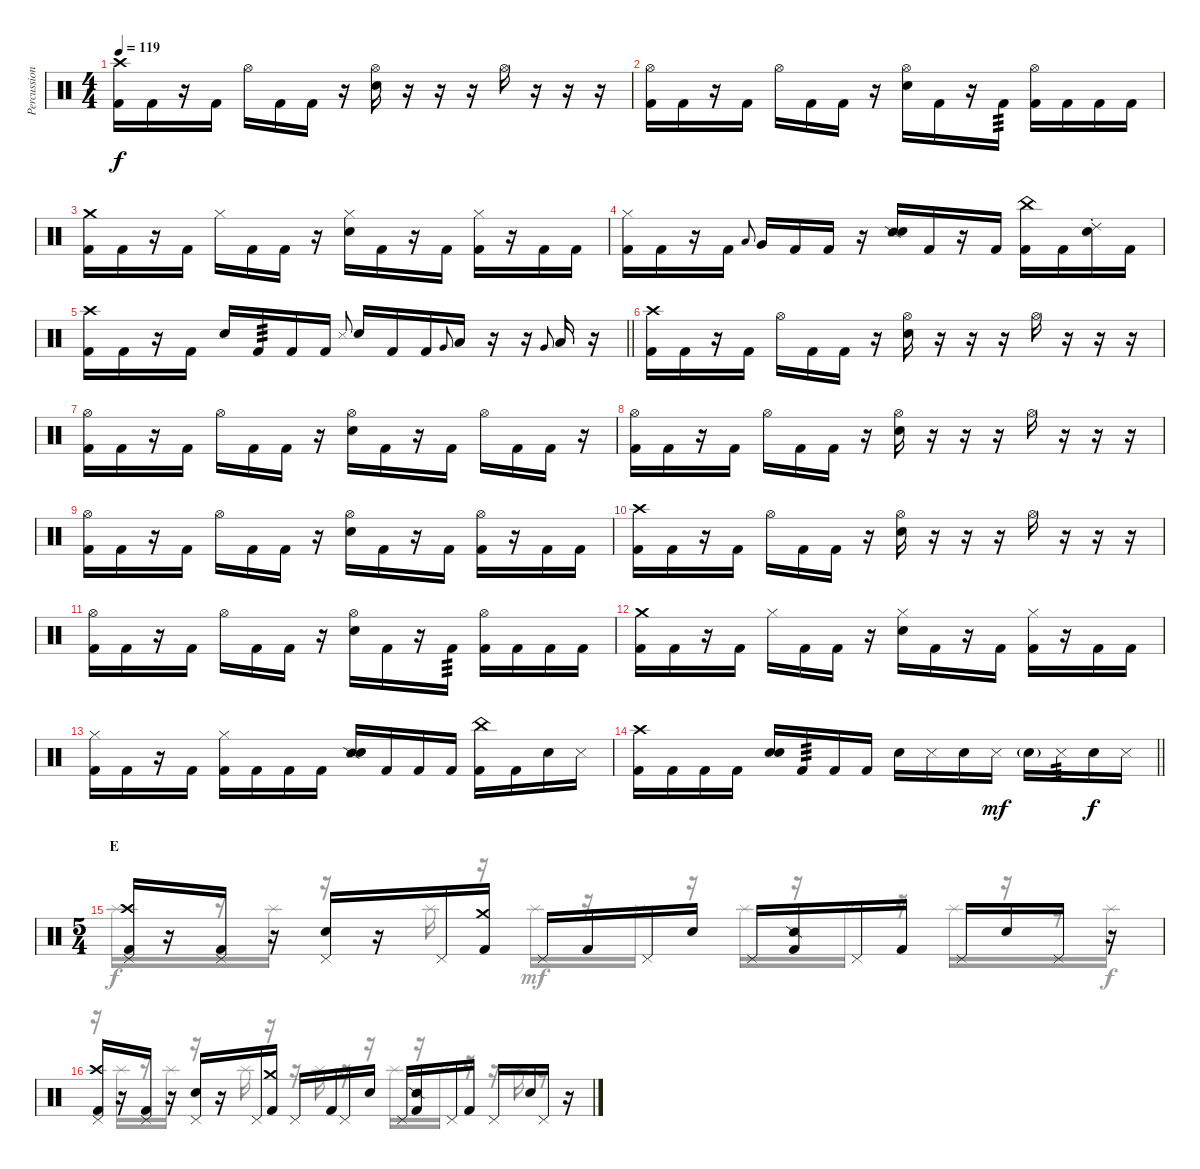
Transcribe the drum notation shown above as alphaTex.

\track ("Percussion" "Percussion") {instrument percussion}
\staff {score}
\articulation defaults
\voice
\ts (4 4)
\tempo 119
\clef neutral
\ks c
("Crash high (hit)" "Kick (hit) 2").16{dy f} "Kick (hit) 2".16 r.16 "Kick (hit) 2".16 "Hi-Hat (open)".16 "Kick (hit) 2".16 "Kick (hit) 2".16 r.16 ("Hi-Hat (open)" "Snare (hit) 2").16 r.16 r.16 r.16 "Hi-Hat (open)".16 r.16 r.16 r.16 |
("Hi-Hat (open)" "Kick (hit) 2").16 "Kick (hit) 2".16 r.16 "Kick (hit) 2".16 "Hi-Hat (open)".16 "Kick (hit) 2".16 "Kick (hit) 2".16 r.16 ("Hi-Hat (open)" "Snare (hit) 2").16 "Kick (hit) 2".16 r.16 "Kick (hit) 2".16{tp 3} ("Hi-Hat (open)" "Kick (hit) 2").16 "Kick (hit) 2".16 "Kick (hit) 2".16 "Kick (hit) 2".16 |
("Crash medium (hit)" "Kick (hit) 2").16 "Kick (hit) 2".16 r.16 "Kick (hit) 2".16 "Hi-Hat (closed)".16 "Kick (hit) 2".16 "Kick (hit) 2".16 r.16 ("Hi-Hat (closed)" "Snare (hit) 2").16 "Kick (hit) 2".16 r.16 "Kick (hit) 2".16 ("Hi-Hat (closed)" "Kick (hit) 2").16 r.16 "Kick (hit) 2".16 "Kick (hit) 2".16 |
("Hi-Hat (closed)" "Kick (hit) 2").16 "Kick (hit) 2".16 r.16 "Kick (hit) 2".16 "Low Tom (hit)".8{gr onbeat} "Very Low Tom (hit)".16 "Kick (hit) 2".16 "Kick (hit) 2".16 r.16 ("Snare (side stick) 2" "Snare (hit) 2").16 "Kick (hit) 2".16 r.16 "Kick (hit) 2".16 ("China (hit)" "Kick (hit) 2").16 "Kick (hit) 2".16 ("Ride (choke) 2" "Snare (hit) 2").16 "Kick (hit) 2".16 |
\barLineRight lightlight
("Crash high (hit)" "Kick (hit) 2").16 "Kick (hit) 2".16 r.16 "Kick (hit) 2".16 "Snare (hit)".16 "Kick (hit) 2".16{tp 3} "Kick (hit) 2".16 "Kick (hit) 2".16 "Metronome (hit)".8{gr onbeat} "Snare (hit) 2".16 "Kick (hit) 2".16 "Kick (hit) 2".16 "Very Low Tom (hit)".8{gr onbeat} "Low Floor Tom (hit)".16 r.16 r.16 "Very Low Tom (hit)".8{gr onbeat} "Low Floor Tom (hit)".16 r.16 |
("Crash high (hit)" "Kick (hit) 2").16 "Kick (hit) 2".16 r.16 "Kick (hit) 2".16 "Hi-Hat (open)".16 "Kick (hit) 2".16 "Kick (hit) 2".16 r.16 ("Hi-Hat (open)" "Snare (hit) 2").16 r.16 r.16 r.16 "Hi-Hat (open)".16 r.16 r.16 r.16 |
("Hi-Hat (open)" "Kick (hit) 2").16 "Kick (hit) 2".16 r.16 "Kick (hit) 2".16 "Hi-Hat (open)".16 "Kick (hit) 2".16 "Kick (hit) 2".16 r.16 ("Hi-Hat (open)" "Snare (hit) 2").16 "Kick (hit) 2".16 r.16 "Kick (hit) 2".16 "Hi-Hat (open)".16 "Kick (hit) 2".16 "Kick (hit) 2".16 r.16 |
("Hi-Hat (open)" "Kick (hit) 2").16 "Kick (hit) 2".16 r.16 "Kick (hit) 2".16 "Hi-Hat (open)".16 "Kick (hit) 2".16 "Kick (hit) 2".16 r.16 ("Hi-Hat (open)" "Snare (hit) 2").16 r.16 r.16 r.16 "Hi-Hat (open)".16 r.16 r.16 r.16 |
("Hi-Hat (open)" "Kick (hit) 2").16 "Kick (hit) 2".16 r.16 "Kick (hit) 2".16 "Hi-Hat (open)".16 "Kick (hit) 2".16 "Kick (hit) 2".16 r.16 ("Hi-Hat (open)" "Snare (hit) 2").16 "Kick (hit) 2".16 r.16 "Kick (hit) 2".16 ("Hi-Hat (open)" "Kick (hit) 2").16 r.16 "Kick (hit) 2".16 "Kick (hit) 2".16 |
("Crash high (hit)" "Kick (hit) 2").16 "Kick (hit) 2".16 r.16 "Kick (hit) 2".16 "Hi-Hat (open)".16 "Kick (hit) 2".16 "Kick (hit) 2".16 r.16 ("Hi-Hat (open)" "Snare (hit) 2").16 r.16 r.16 r.16 "Hi-Hat (open)".16 r.16 r.16 r.16 |
("Hi-Hat (open)" "Kick (hit) 2").16 "Kick (hit) 2".16 r.16 "Kick (hit) 2".16 "Hi-Hat (open)".16 "Kick (hit) 2".16 "Kick (hit) 2".16 r.16 ("Hi-Hat (open)" "Snare (hit) 2").16 "Kick (hit) 2".16 r.16 "Kick (hit) 2".16{tp 3} ("Hi-Hat (open)" "Kick (hit) 2").16 "Kick (hit) 2".16 "Kick (hit) 2".16 "Kick (hit) 2".16 |
("Crash medium (hit)" "Kick (hit) 2").16 "Kick (hit) 2".16 r.16 "Kick (hit) 2".16 "Hi-Hat (closed)".16 "Kick (hit) 2".16 "Kick (hit) 2".16 r.16 ("Hi-Hat (closed)" "Snare (hit) 2").16 "Kick (hit) 2".16 r.16 "Kick (hit) 2".16 ("Hi-Hat (closed)" "Kick (hit) 2").16 r.16 "Kick (hit) 2".16 "Kick (hit) 2".16 |
("Hi-Hat (closed)" "Kick (hit) 2").16 "Kick (hit) 2".16 r.16 "Kick (hit) 2".16 ("Hi-Hat (closed)" "Kick (hit) 2").16 "Kick (hit) 2".16 "Kick (hit) 2".16 "Kick (hit) 2".16 ("Snare (side stick) 2" "Snare (hit) 2").16 "Kick (hit) 2".16 "Kick (hit) 2".16 "Kick (hit) 2".16 ("China (hit)" "Kick (hit) 2").16 "Kick (hit) 2".16 "Snare (hit) 2".16 "Metronome (hit)".16 |
\barLineRight lightlight
("Crash high (hit)" "Kick (hit) 2").16 "Kick (hit) 2".16 "Kick (hit) 2".16 "Kick (hit) 2".16 ("Snare (hit)" "Snare (hit) 2").16 "Kick (hit) 2".16{tp 3} "Kick (hit) 2".16 "Kick (hit) 2".16 "Snare (hit) 2".16 "Metronome (hit)".16 "Snare (hit) 2".16 "Metronome (hit)".16{dy mf} "Snare (hit) 2"{g}.16 "Metronome (hit)".16{tp 3} "Snare (hit) 2".16{dy f} "Metronome (hit)".16 |
\ts (5 4)
\section ("" "E")
("Crash high (hit)" "Pedal Hi-Hat (hit)" "Kick (hit) 2").16 r.16 ("Pedal Hi-Hat (hit)" "Kick (hit) 2").16 r.16 ("Pedal Hi-Hat (hit)" "Snare (hit) 2").16 r.16 "Pedal Hi-Hat (hit)".16 ("Crash medium (hit)" "Kick (hit) 2").16 "Pedal Hi-Hat (hit)".16 "Kick (hit) 2".16 "Pedal Hi-Hat (hit)".16 "Snare (hit) 2".16 "Pedal Hi-Hat (hit)".16 ("Snare (side stick) 2" "Kick (hit) 2").16 "Pedal Hi-Hat (hit)".16 "Kick (hit) 2".16 "Pedal Hi-Hat (hit)".16 "Snare (hit) 2".16 "Pedal Hi-Hat (hit)".16 r.16 |
("Crash high (hit)" "Pedal Hi-Hat (hit)" "Kick (hit) 2").16 r.16 ("Pedal Hi-Hat (hit)" "Kick (hit) 2").16 r.16 ("Pedal Hi-Hat (hit)" "Snare (hit) 2").16 r.16 "Pedal Hi-Hat (hit)".16 ("Crash medium (hit)" "Kick (hit) 2").16 "Pedal Hi-Hat (hit)".16 "Kick (hit) 2".16 "Pedal Hi-Hat (hit)".16 "Snare (hit) 2".16 "Pedal Hi-Hat (hit)".16 ("Snare (side stick) 2" "Kick (hit) 2").16 "Pedal Hi-Hat (hit)".16 "Kick (hit) 2".16 "Pedal Hi-Hat (hit)".16 "Snare (hit) 2".16 "Pedal Hi-Hat (hit)".16 r.16
\voice
\clef neutral
\ottava regular
\simile none
\ks c
|
|
|
|
\barLineRight lightlight
|
|
|
|
|
|
|
|
|
\barLineRight lightlight
|
"Splash (hit)".16 r.16 r.16 "Splash (hit)".16 r.16 r.16 "Splash (hit)".16 r.16 "Splash (hit)".16{dy mf} r.16 "Splash (hit)".16 r.16 "Splash (hit)".16 r.16 "Splash (hit)".16 r.16 "Splash (hit)".16 r.16 r.16 "Splash (hit)".16{dy f} |
r.16 "Splash (hit)".16 r.16 "Splash (hit)".16 r.16 r.16 "Splash (hit)".16 r.16 r.16 "Splash (hit)".16 r.16 r.16 "Splash (hit)".16 r.16 "Splash (hit)".16 r.16 r.16 "Splash (hit)".16 r.16 r.16
